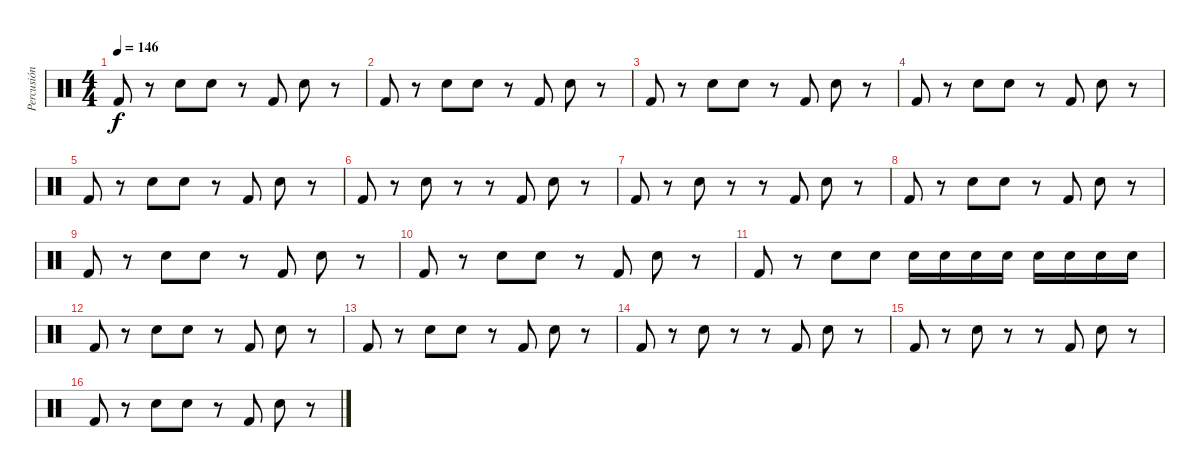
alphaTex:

\track ("Percusión" "Percusión") {instrument percussion}
\staff {score}
\articulation defaults
\ts (4 4)
\tempo 146
\clef neutral
\ks c "Kick (hit) 2".8{dy f}
r.8 "Snare (hit) 2".8 "Snare (hit) 2".8 r.8 "Kick (hit) 2".8 "Snare (hit) 2".8 r.8 |
"Kick (hit) 2".8 r.8 "Snare (hit) 2".8 "Snare (hit) 2".8 r.8 "Kick (hit) 2".8 "Snare (hit) 2".8 r.8 |
"Kick (hit) 2".8 r.8 "Snare (hit) 2".8 "Snare (hit) 2".8 r.8 "Kick (hit) 2".8 "Snare (hit) 2".8 r.8 |
"Kick (hit) 2".8 r.8 "Snare (hit) 2".8 "Snare (hit) 2".8 r.8 "Kick (hit) 2".8 "Snare (hit) 2".8 r.8 |
"Kick (hit) 2".8 r.8 "Snare (hit) 2".8 "Snare (hit) 2".8 r.8 "Kick (hit) 2".8 "Snare (hit) 2".8 r.8 |
"Kick (hit) 2".8 r.8 "Snare (hit) 2".8 r.8 r.8 "Kick (hit) 2".8 "Snare (hit) 2".8 r.8 |
"Kick (hit) 2".8 r.8 "Snare (hit) 2".8 r.8 r.8 "Kick (hit) 2".8 "Snare (hit) 2".8 r.8 |
"Kick (hit) 2".8 r.8 "Snare (hit) 2".8 "Snare (hit) 2".8 r.8 "Kick (hit) 2".8 "Snare (hit) 2".8 r.8 |
"Kick (hit) 2".8 r.8 "Snare (hit) 2".8 "Snare (hit) 2".8 r.8 "Kick (hit) 2".8 "Snare (hit) 2".8 r.8 |
"Kick (hit) 2".8 r.8 "Snare (hit) 2".8 "Snare (hit) 2".8 r.8 "Kick (hit) 2".8 "Snare (hit) 2".8 r.8 |
"Kick (hit) 2".8 r.8 "Snare (hit) 2".8 "Snare (hit) 2".8 "Snare (hit) 2".16 "Snare (hit) 2".16 "Snare (hit) 2".16 "Snare (hit) 2".16 "Snare (hit) 2".16 "Snare (hit) 2".16 "Snare (hit) 2".16 "Snare (hit) 2".16 |
"Kick (hit) 2".8 r.8 "Snare (hit) 2".8 "Snare (hit) 2".8 r.8 "Kick (hit) 2".8 "Snare (hit) 2".8 r.8 |
"Kick (hit) 2".8 r.8 "Snare (hit) 2".8 "Snare (hit) 2".8 r.8 "Kick (hit) 2".8 "Snare (hit) 2".8 r.8 |
"Kick (hit) 2".8 r.8 "Snare (hit) 2".8 r.8 r.8 "Kick (hit) 2".8 "Snare (hit) 2".8 r.8 |
"Kick (hit) 2".8 r.8 "Snare (hit) 2".8 r.8 r.8 "Kick (hit) 2".8 "Snare (hit) 2".8 r.8 |
"Kick (hit) 2".8 r.8 "Snare (hit) 2".8 "Snare (hit) 2".8 r.8 "Kick (hit) 2".8 "Snare (hit) 2".8 r.8
